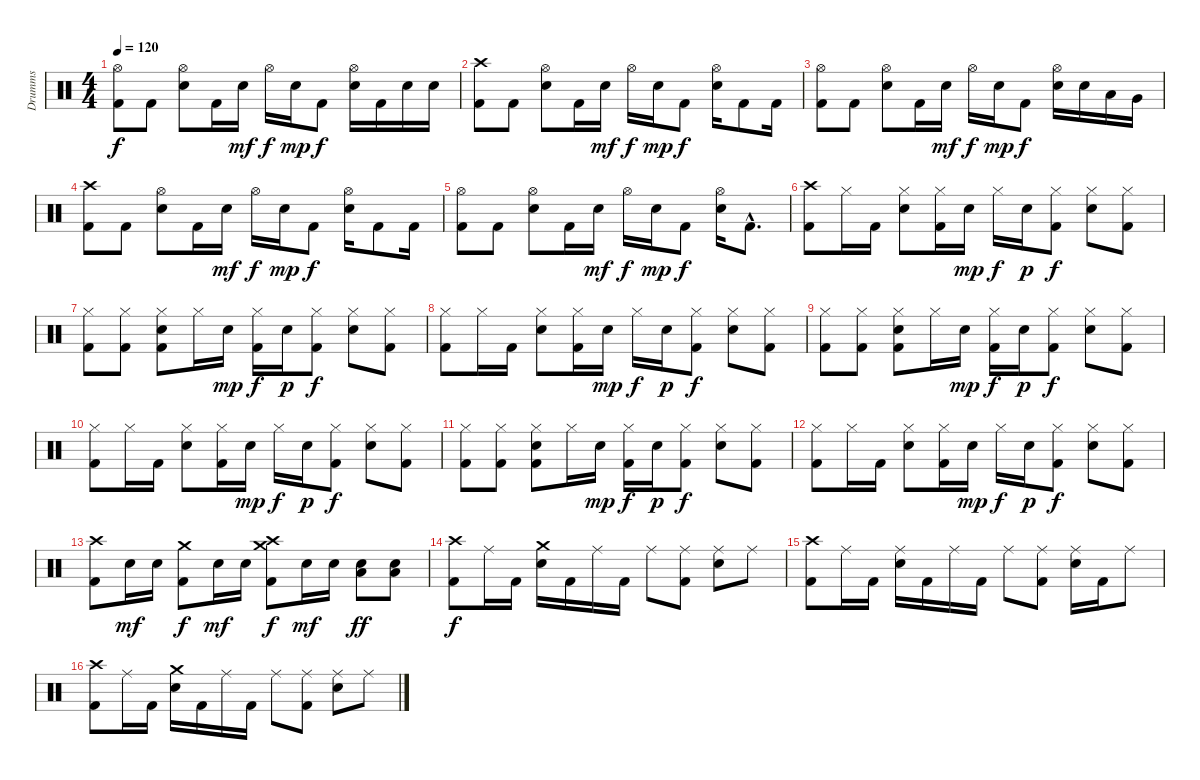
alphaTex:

\track ("Drumms" "Drumms") {instrument percussion}
\staff {score}
\articulation defaults
\ts (4 4)
\tempo 120
\clef neutral
\ks c
("Hi-Hat (open)" "Kick (hit) 2").8{dy f} "Kick (hit) 2".8 ("Hi-Hat (open)" "Electric Snare (hit)").8 "Kick (hit) 2".16 "Electric Snare (hit)".16{dy mf} "Hi-Hat (open)".16{dy f} "Electric Snare (hit)".16{dy mp} "Kick (hit) 2".8{dy f} ("Hi-Hat (open)" "Electric Snare (hit)").16 "Kick (hit) 2".16 "Electric Snare (hit)".16 "Electric Snare (hit)".16 |
("Crash high (hit)" "Kick (hit) 2").8 "Kick (hit) 2".8 ("Hi-Hat (open)" "Electric Snare (hit)").8 "Kick (hit) 2".16 "Electric Snare (hit)".16{dy mf} "Hi-Hat (open)".16{dy f} "Electric Snare (hit)".16{dy mp} "Kick (hit) 2".8{dy f} ("Hi-Hat (open)" "Electric Snare (hit)").16 "Kick (hit) 2".8 "Kick (hit) 2".16 |
("Hi-Hat (open)" "Kick (hit) 2").8 "Kick (hit) 2".8 ("Hi-Hat (open)" "Electric Snare (hit)").8 "Kick (hit) 2".16 "Electric Snare (hit)".16{dy mf} "Hi-Hat (open)".16{dy f} "Electric Snare (hit)".16{dy mp} "Kick (hit) 2".8{dy f} ("Hi-Hat (open)" "Electric Snare (hit)").16 "Electric Snare (hit)".16 "Low Tom (hit)".16 "Very Low Tom (hit)".16 |
("Crash high (hit)" "Kick (hit) 2").8 "Kick (hit) 2".8 ("Hi-Hat (open)" "Electric Snare (hit)").8 "Kick (hit) 2".16 "Electric Snare (hit)".16{dy mf} "Hi-Hat (open)".16{dy f} "Electric Snare (hit)".16{dy mp} "Kick (hit) 2".8{dy f} ("Hi-Hat (open)" "Electric Snare (hit)").16 "Kick (hit) 2".8 "Kick (hit) 2".16 |
("Hi-Hat (open)" "Kick (hit) 2").8 "Kick (hit) 2".8 ("Hi-Hat (open)" "Electric Snare (hit)").8 "Kick (hit) 2".16 "Electric Snare (hit)".16{dy mf} "Hi-Hat (open)".16{dy f} "Electric Snare (hit)".16{dy mp} "Kick (hit) 2".8{dy f} ("Hi-Hat (open)" "Electric Snare (hit)").16 "Kick (hit) 2"{hac}.8{d} |
("Crash high (hit)" "Kick (hit) 2").8 "Hi-Hat (closed)".16 "Kick (hit) 2".16 ("Hi-Hat (closed)" "Electric Snare (hit)").8 ("Hi-Hat (closed)" "Kick (hit) 2").16 "Electric Snare (hit)".16{dy mp} "Hi-Hat (closed)".16{dy f} "Electric Snare (hit)".16{dy p} ("Hi-Hat (closed)" "Kick (hit) 2").8{dy f} ("Hi-Hat (closed)" "Electric Snare (hit)").8 ("Hi-Hat (closed)" "Kick (hit) 2").8 |
("Hi-Hat (closed)" "Kick (hit) 2").8 ("Hi-Hat (closed)" "Kick (hit) 2").8 ("Hi-Hat (closed)" "Electric Snare (hit)" "Kick (hit) 2").8 "Hi-Hat (closed)".16 "Electric Snare (hit)".16{dy mp} ("Hi-Hat (closed)" "Kick (hit) 2").16{dy f} "Electric Snare (hit)".16{dy p} ("Hi-Hat (closed)" "Kick (hit) 2").8{dy f} ("Hi-Hat (closed)" "Electric Snare (hit)").8 ("Hi-Hat (closed)" "Kick (hit) 2").8 |
("Hi-Hat (closed)" "Kick (hit) 2").8 "Hi-Hat (closed)".16 "Kick (hit) 2".16 ("Hi-Hat (closed)" "Electric Snare (hit)").8 ("Hi-Hat (closed)" "Kick (hit) 2").16 "Electric Snare (hit)".16{dy mp} "Hi-Hat (closed)".16{dy f} "Electric Snare (hit)".16{dy p} ("Hi-Hat (closed)" "Kick (hit) 2").8{dy f} ("Hi-Hat (closed)" "Electric Snare (hit)").8 ("Hi-Hat (closed)" "Kick (hit) 2").8 |
("Hi-Hat (closed)" "Kick (hit) 2").8 ("Hi-Hat (closed)" "Kick (hit) 2").8 ("Hi-Hat (closed)" "Electric Snare (hit)" "Kick (hit) 2").8 "Hi-Hat (closed)".16 "Electric Snare (hit)".16{dy mp} ("Hi-Hat (closed)" "Kick (hit) 2").16{dy f} "Electric Snare (hit)".16{dy p} ("Hi-Hat (closed)" "Kick (hit) 2").8{dy f} ("Hi-Hat (closed)" "Electric Snare (hit)").8 ("Hi-Hat (closed)" "Kick (hit) 2").8 |
("Hi-Hat (closed)" "Kick (hit) 2").8 "Hi-Hat (closed)".16 "Kick (hit) 2".16 ("Hi-Hat (closed)" "Electric Snare (hit)").8 ("Hi-Hat (closed)" "Kick (hit) 2").16 "Electric Snare (hit)".16{dy mp} "Hi-Hat (closed)".16{dy f} "Electric Snare (hit)".16{dy p} ("Hi-Hat (closed)" "Kick (hit) 2").8{dy f} ("Hi-Hat (closed)" "Electric Snare (hit)").8 ("Hi-Hat (closed)" "Kick (hit) 2").8 |
("Hi-Hat (closed)" "Kick (hit) 2").8 ("Hi-Hat (closed)" "Kick (hit) 2").8 ("Hi-Hat (closed)" "Electric Snare (hit)" "Kick (hit) 2").8 "Hi-Hat (closed)".16 "Electric Snare (hit)".16{dy mp} ("Hi-Hat (closed)" "Kick (hit) 2").16{dy f} "Electric Snare (hit)".16{dy p} ("Hi-Hat (closed)" "Kick (hit) 2").8{dy f} ("Hi-Hat (closed)" "Electric Snare (hit)").8 ("Hi-Hat (closed)" "Kick (hit) 2").8 |
("Hi-Hat (closed)" "Kick (hit) 2").8 "Hi-Hat (closed)".16 "Kick (hit) 2".16 ("Hi-Hat (closed)" "Electric Snare (hit)").8 ("Hi-Hat (closed)" "Kick (hit) 2").16 "Electric Snare (hit)".16{dy mp} "Hi-Hat (closed)".16{dy f} "Electric Snare (hit)".16{dy p} ("Hi-Hat (closed)" "Kick (hit) 2").8{dy f} ("Hi-Hat (closed)" "Electric Snare (hit)").8 ("Hi-Hat (closed)" "Kick (hit) 2").8 |
("Crash high (hit)" "Kick (hit) 2").8 "Electric Snare (hit)".16{dy mf} "Electric Snare (hit)".16 ("Crash medium (hit)" "Kick (hit) 2").8{dy f} "Electric Snare (hit)".16{dy mf} "Electric Snare (hit)".16 ("Crash high (hit)" "Crash medium (hit)" "Kick (hit) 2").8{dy f} "Electric Snare (hit)".16{dy mf} "Electric Snare (hit)".16 ("Low Floor Tom (hit)" "Electric Snare (hit)").8{dy ff} ("Low Floor Tom (hit)" "Electric Snare (hit)").8 |
("Crash high (hit)" "Kick (hit) 2").8{dy f} "Ride (middle)".16 "Kick (hit) 2".16 ("Crash medium (hit)" "Electric Snare (hit)").16 "Kick (hit) 2".16 "Ride (middle)".16 "Kick (hit) 2".16 "Ride (middle)".8 ("Ride (middle)" "Kick (hit) 2").8 ("Ride (middle)" "Electric Snare (hit)").8 "Ride (middle)".8 |
("Crash high (hit)" "Kick (hit) 2").8 "Ride (middle)".16 "Kick (hit) 2".16 ("Ride (middle)" "Electric Snare (hit)").16 "Kick (hit) 2".16 "Ride (middle)".16 "Kick (hit) 2".16 "Ride (middle)".8 ("Ride (middle)" "Kick (hit) 2").8 ("Ride (middle)" "Electric Snare (hit)").16 "Kick (hit) 2".16 "Ride (middle)".8 |
("Crash high (hit)" "Kick (hit) 2").8 "Ride (middle)".16 "Kick (hit) 2".16 ("Crash medium (hit)" "Electric Snare (hit)").16 "Kick (hit) 2".16 "Ride (middle)".16 "Kick (hit) 2".16 "Ride (middle)".8 ("Ride (middle)" "Kick (hit) 2").8 ("Ride (middle)" "Electric Snare (hit)").8 "Ride (middle)".8
